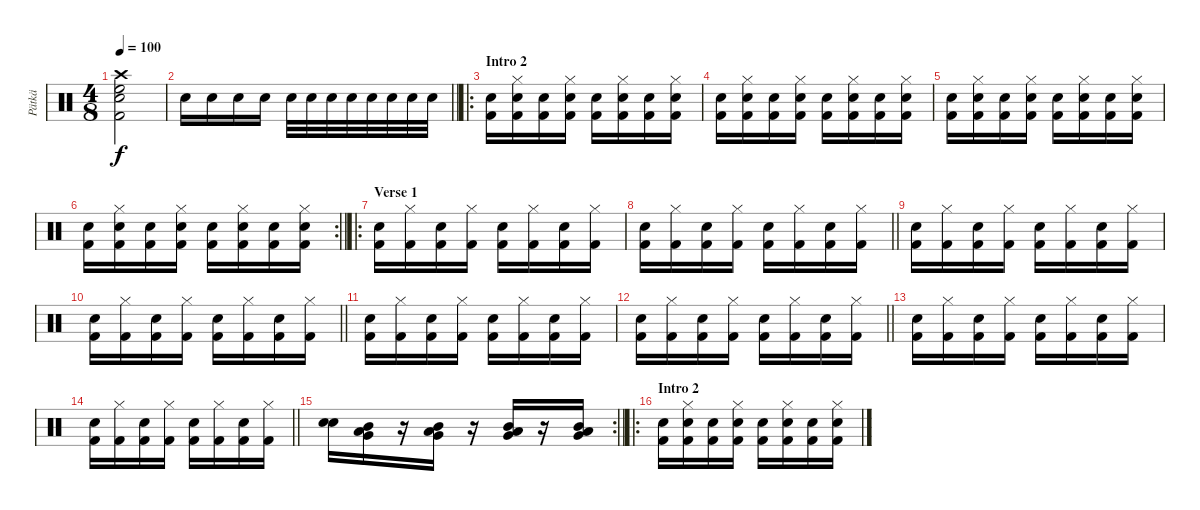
\track ("Pätkä" "Pätkä") {instrument percussion}
\staff {score}
\articulation defaults
\ts (4 8)
\tempo 100
\clef neutral
\ks c
("Crash high (hit)" "High Floor Tom (hit)" "Snare (hit) 2" "Kick (hit) 2").2{dy f} |
\barLineRight lightlight "Snare (hit) 2".16 "Snare (hit) 2".16 "Snare (hit) 2".16 "Snare (hit) 2".16 "Electric Snare (hit)".32 "Electric Snare (hit)".32 "Electric Snare (hit)".32 "Electric Snare (hit)".32 "Electric Snare (hit)".32 "Electric Snare (hit)".32 "Electric Snare (hit)".32 "Electric Snare (hit)".32
|
\ro
\section ("" "Intro 2")
("Snare (hit) 2" "Kick (hit) 2").16 ("Hi-Hat (closed)" "Electric Snare (hit)" "Kick (hit) 2").16 ("Snare (hit) 2" "Kick (hit) 2").16 ("Hi-Hat (closed)" "Electric Snare (hit)" "Kick (hit) 2").16 ("Snare (hit) 2" "Kick (hit) 2").16 ("Hi-Hat (closed)" "Electric Snare (hit)" "Kick (hit) 2").16 ("Snare (hit) 2" "Kick (hit) 2").16 ("Hi-Hat (closed)" "Electric Snare (hit)" "Kick (hit) 2").16 |
("Snare (hit) 2" "Kick (hit) 2").16 ("Hi-Hat (closed)" "Electric Snare (hit)" "Kick (hit) 2").16 ("Snare (hit) 2" "Kick (hit) 2").16 ("Hi-Hat (closed)" "Electric Snare (hit)" "Kick (hit) 2").16 ("Snare (hit) 2" "Kick (hit) 2").16 ("Hi-Hat (closed)" "Electric Snare (hit)" "Kick (hit) 2").16 ("Snare (hit) 2" "Kick (hit) 2").16 ("Hi-Hat (closed)" "Electric Snare (hit)" "Kick (hit) 2").16 |
("Snare (hit) 2" "Kick (hit) 2").16 ("Hi-Hat (closed)" "Electric Snare (hit)" "Kick (hit) 2").16 ("Snare (hit) 2" "Kick (hit) 2").16 ("Hi-Hat (closed)" "Electric Snare (hit)" "Kick (hit) 2").16 ("Snare (hit) 2" "Kick (hit) 2").16 ("Hi-Hat (closed)" "Electric Snare (hit)" "Kick (hit) 2").16 ("Snare (hit) 2" "Kick (hit) 2").16 ("Hi-Hat (closed)" "Electric Snare (hit)" "Kick (hit) 2").16 |
\rc 2
\barLineRight lightlight
("Snare (hit) 2" "Kick (hit) 2").16 ("Hi-Hat (closed)" "Electric Snare (hit)" "Kick (hit) 2").16 ("Snare (hit) 2" "Kick (hit) 2").16 ("Hi-Hat (closed)" "Electric Snare (hit)" "Kick (hit) 2").16 ("Snare (hit) 2" "Kick (hit) 2").16 ("Hi-Hat (closed)" "Electric Snare (hit)" "Kick (hit) 2").16 ("Snare (hit) 2" "Kick (hit) 2").16 ("Hi-Hat (closed)" "Electric Snare (hit)" "Kick (hit) 2").16 |
\ro
\section ("" "Verse 1")
("Snare (hit) 2" "Kick (hit) 2").16 ("Hi-Hat (closed)" "Kick (hit) 2").16 ("Snare (hit) 2" "Kick (hit) 2").16 ("Hi-Hat (closed)" "Kick (hit) 2").16 ("Snare (hit) 2" "Kick (hit) 2").16 ("Hi-Hat (closed)" "Kick (hit) 2").16 ("Snare (hit) 2" "Kick (hit) 2").16 ("Hi-Hat (closed)" "Kick (hit) 2").16 |
\barLineRight lightlight
("Snare (hit) 2" "Kick (hit) 2").16 ("Hi-Hat (closed)" "Kick (hit) 2").16 ("Snare (hit) 2" "Kick (hit) 2").16 ("Hi-Hat (closed)" "Kick (hit) 2").16 ("Snare (hit) 2" "Kick (hit) 2").16 ("Hi-Hat (closed)" "Kick (hit) 2").16 ("Snare (hit) 2" "Kick (hit) 2").16 ("Hi-Hat (closed)" "Kick (hit) 2").16 |
("Snare (hit) 2" "Kick (hit) 2").16 ("Hi-Hat (closed)" "Kick (hit) 2").16 ("Snare (hit) 2" "Kick (hit) 2").16 ("Hi-Hat (closed)" "Kick (hit) 2").16 ("Snare (hit) 2" "Kick (hit) 2").16 ("Hi-Hat (closed)" "Kick (hit) 2").16 ("Snare (hit) 2" "Kick (hit) 2").16 ("Hi-Hat (closed)" "Kick (hit) 2").16 |
\barLineRight lightlight
("Snare (hit) 2" "Kick (hit) 2").16 ("Hi-Hat (closed)" "Kick (hit) 2").16 ("Snare (hit) 2" "Kick (hit) 2").16 ("Hi-Hat (closed)" "Kick (hit) 2").16 ("Snare (hit) 2" "Kick (hit) 2").16 ("Hi-Hat (closed)" "Kick (hit) 2").16 ("Snare (hit) 2" "Kick (hit) 2").16 ("Hi-Hat (closed)" "Kick (hit) 2").16 |
("Snare (hit) 2" "Kick (hit) 2").16 ("Hi-Hat (closed)" "Kick (hit) 2").16 ("Snare (hit) 2" "Kick (hit) 2").16 ("Hi-Hat (closed)" "Kick (hit) 2").16 ("Snare (hit) 2" "Kick (hit) 2").16 ("Hi-Hat (closed)" "Kick (hit) 2").16 ("Snare (hit) 2" "Kick (hit) 2").16 ("Hi-Hat (closed)" "Kick (hit) 2").16 |
\barLineRight lightlight
("Snare (hit) 2" "Kick (hit) 2").16 ("Hi-Hat (closed)" "Kick (hit) 2").16 ("Snare (hit) 2" "Kick (hit) 2").16 ("Hi-Hat (closed)" "Kick (hit) 2").16 ("Snare (hit) 2" "Kick (hit) 2").16 ("Hi-Hat (closed)" "Kick (hit) 2").16 ("Snare (hit) 2" "Kick (hit) 2").16 ("Hi-Hat (closed)" "Kick (hit) 2").16 |
("Snare (hit) 2" "Kick (hit) 2").16 ("Hi-Hat (closed)" "Kick (hit) 2").16 ("Snare (hit) 2" "Kick (hit) 2").16 ("Hi-Hat (closed)" "Kick (hit) 2").16 ("Snare (hit) 2" "Kick (hit) 2").16 ("Hi-Hat (closed)" "Kick (hit) 2").16 ("Snare (hit) 2" "Kick (hit) 2").16 ("Hi-Hat (closed)" "Kick (hit) 2").16 |
\barLineRight lightlight
("Snare (hit) 2" "Kick (hit) 2").16 ("Hi-Hat (closed)" "Kick (hit) 2").16 ("Snare (hit) 2" "Kick (hit) 2").16 ("Hi-Hat (closed)" "Kick (hit) 2").16 ("Snare (hit) 2" "Kick (hit) 2").16 ("Hi-Hat (closed)" "Kick (hit) 2").16 ("Snare (hit) 2" "Kick (hit) 2").16 ("Hi-Hat (closed)" "Kick (hit) 2").16 |
\rc 2
\barLineRight lightlight
("Snare (hit) 2" "Electric Snare (hit)").16 ("Mid Tom (hit)" "Very Low Tom (hit)" "Low Tom (hit)").16 r.16 ("Mid Tom (hit)" "Very Low Tom (hit)" "Low Tom (hit)").16 r.16 ("Mid Tom (hit)" "Very Low Tom (hit)" "Low Tom (hit)").16 r.16 ("Mid Tom (hit)" "Very Low Tom (hit)" "Low Tom (hit)").16 |
\ro
\section ("" "Intro 2")
("Snare (hit) 2" "Kick (hit) 2").16 ("Hi-Hat (closed)" "Electric Snare (hit)" "Kick (hit) 2").16 ("Snare (hit) 2" "Kick (hit) 2").16 ("Hi-Hat (closed)" "Electric Snare (hit)" "Kick (hit) 2").16 ("Snare (hit) 2" "Kick (hit) 2").16 ("Hi-Hat (closed)" "Electric Snare (hit)" "Kick (hit) 2").16 ("Snare (hit) 2" "Kick (hit) 2").16 ("Hi-Hat (closed)" "Electric Snare (hit)" "Kick (hit) 2").16
